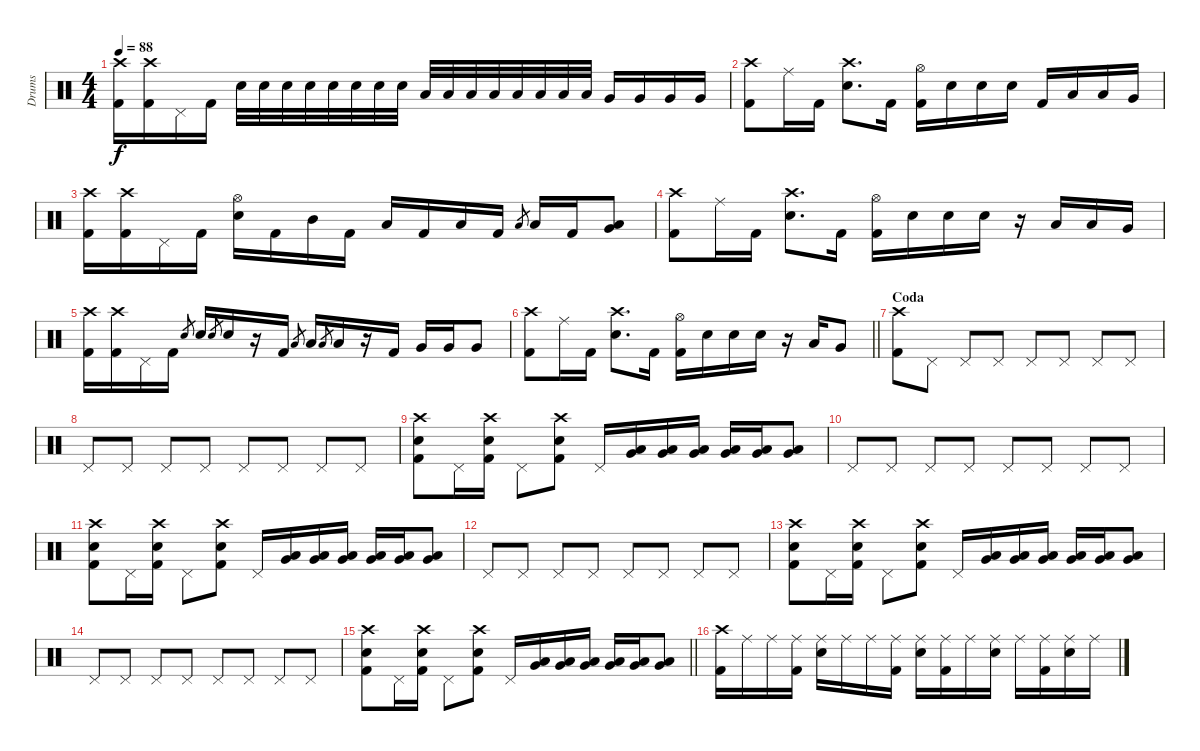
\track ("Drums" "Drums") {instrument percussion}
\staff {score}
\articulation defaults
\ts (4 4)
\tempo 88
\clef neutral
\ks c
("Crash high (hit)" "Kick (hit) 2").16{dy f} ("Crash high (hit)" "Kick (hit) 2").16 "Pedal Hi-Hat (hit)".16 "Kick (hit) 2".16 "Snare (hit) 2".32 "Snare (hit) 2".32 "Snare (hit) 2".32 "Snare (hit) 2".32 "Snare (hit) 2".32 "Snare (hit) 2".32 "Snare (hit) 2".32 "Snare (hit) 2".32 "Low Tom (hit)".32 "Low Tom (hit)".32 "Low Tom (hit)".32 "Low Tom (hit)".32 "Low Tom (hit)".32 "Low Tom (hit)".32 "Low Tom (hit)".32 "Low Tom (hit)".32 "Very Low Tom (hit)".16 "Very Low Tom (hit)".16 "Very Low Tom (hit)".16 "Very Low Tom (hit)".16 |
("Crash high (hit)" "Kick (hit) 2").8 "Ride (middle)".16 "Kick (hit) 2".16 ("Crash high (hit)" "Snare (hit) 2").8{d} "Kick (hit) 2".16 ("Hi-Hat (open)" "Kick (hit) 2").16 "Snare (hit) 2".16 "Snare (hit) 2".16 "Snare (hit) 2".16 "Kick (hit) 2".16 "Low Tom (hit)".16 "Low Tom (hit)".16 "Very Low Tom (hit)".16 |
("Crash high (hit)" "Kick (hit) 2").16 ("Crash high (hit)" "Kick (hit) 2").16 "Pedal Hi-Hat (hit)".16 "Kick (hit) 2".16 ("Hi-Hat (open)" "Snare (hit) 2").16 "Kick (hit) 2".16 "Mid Tom (hit)".16 "Kick (hit) 2".16 "Low Tom (hit)".16 "Kick (hit) 2".16 "Low Tom (hit)".16 "Kick (hit) 2".16 "Low Tom (hit)".8{gr} "Low Tom (hit)".16 "Kick (hit) 2".16 ("Low Tom (hit)" "Very Low Tom (hit)").8 |
("Crash high (hit)" "Kick (hit) 2").8 "Ride (middle)".16 "Kick (hit) 2".16 ("Crash high (hit)" "Snare (hit) 2").8{d} "Kick (hit) 2".16 ("Hi-Hat (open)" "Kick (hit) 2").16 "Snare (hit) 2".16 "Snare (hit) 2".16 "Snare (hit) 2".16 r.16 "Low Tom (hit)".16 "Low Tom (hit)".16 "Very Low Tom (hit)".16 |
("Crash high (hit)" "Kick (hit) 2").16 ("Crash high (hit)" "Kick (hit) 2").16 "Pedal Hi-Hat (hit)".16 "Kick (hit) 2".16 "Snare (hit) 2".8{gr} "Snare (hit) 2".16 "Snare (hit) 2".8{gr} "Snare (hit) 2".16 r.16 "Kick (hit) 2".16 "Low Tom (hit)".8{gr} "Low Tom (hit)".16 "Low Tom (hit)".8{gr} "Low Tom (hit)".16 r.16 "Kick (hit) 2".16 "Very Low Tom (hit)".16 "Very Low Tom (hit)".16 "Very Low Tom (hit)".8 |
\barLineRight lightlight
("Crash high (hit)" "Kick (hit) 2").8 "Ride (middle)".16 "Kick (hit) 2".16 ("Crash high (hit)" "Snare (hit) 2").8{d} "Kick (hit) 2".16 ("Hi-Hat (open)" "Kick (hit) 2").16 "Snare (hit) 2".16 "Snare (hit) 2".16 "Snare (hit) 2".16 r.16 "Low Tom (hit)".16 "Very Low Tom (hit)".8 |
\section ("" "Coda")
("Crash high (hit)" "Kick (hit) 2").8 "Pedal Hi-Hat (hit)".8 "Pedal Hi-Hat (hit)".8 "Pedal Hi-Hat (hit)".8 "Pedal Hi-Hat (hit)".8 "Pedal Hi-Hat (hit)".8 "Pedal Hi-Hat (hit)".8 "Pedal Hi-Hat (hit)".8 |
"Pedal Hi-Hat (hit)".8 "Pedal Hi-Hat (hit)".8 "Pedal Hi-Hat (hit)".8 "Pedal Hi-Hat (hit)".8 "Pedal Hi-Hat (hit)".8 "Pedal Hi-Hat (hit)".8 "Pedal Hi-Hat (hit)".8 "Pedal Hi-Hat (hit)".8 |
("Crash high (hit)" "Snare (hit) 2" "Kick (hit) 2").8 "Pedal Hi-Hat (hit)".16 ("Crash high (hit)" "Snare (hit) 2" "Kick (hit) 2").16 "Pedal Hi-Hat (hit)".8 ("Crash high (hit)" "Snare (hit) 2" "Kick (hit) 2").8 "Pedal Hi-Hat (hit)".16 ("Low Tom (hit)" "Very Low Tom (hit)").16 ("Low Tom (hit)" "Very Low Tom (hit)").16 ("Low Tom (hit)" "Very Low Tom (hit)").16 ("Low Tom (hit)" "Very Low Tom (hit)").16 ("Low Tom (hit)" "Very Low Tom (hit)").16 ("Low Tom (hit)" "Very Low Tom (hit)").8 |
"Pedal Hi-Hat (hit)".8 "Pedal Hi-Hat (hit)".8 "Pedal Hi-Hat (hit)".8 "Pedal Hi-Hat (hit)".8 "Pedal Hi-Hat (hit)".8 "Pedal Hi-Hat (hit)".8 "Pedal Hi-Hat (hit)".8 "Pedal Hi-Hat (hit)".8 |
("Crash high (hit)" "Snare (hit) 2" "Kick (hit) 2").8 "Pedal Hi-Hat (hit)".16 ("Crash high (hit)" "Snare (hit) 2" "Kick (hit) 2").16 "Pedal Hi-Hat (hit)".8 ("Crash high (hit)" "Snare (hit) 2" "Kick (hit) 2").8 "Pedal Hi-Hat (hit)".16 ("Low Tom (hit)" "Very Low Tom (hit)").16 ("Low Tom (hit)" "Very Low Tom (hit)").16 ("Low Tom (hit)" "Very Low Tom (hit)").16 ("Low Tom (hit)" "Very Low Tom (hit)").16 ("Low Tom (hit)" "Very Low Tom (hit)").16 ("Low Tom (hit)" "Very Low Tom (hit)").8 |
"Pedal Hi-Hat (hit)".8 "Pedal Hi-Hat (hit)".8 "Pedal Hi-Hat (hit)".8 "Pedal Hi-Hat (hit)".8 "Pedal Hi-Hat (hit)".8 "Pedal Hi-Hat (hit)".8 "Pedal Hi-Hat (hit)".8 "Pedal Hi-Hat (hit)".8 |
("Crash high (hit)" "Snare (hit) 2" "Kick (hit) 2").8 "Pedal Hi-Hat (hit)".16 ("Crash high (hit)" "Snare (hit) 2" "Kick (hit) 2").16 "Pedal Hi-Hat (hit)".8 ("Crash high (hit)" "Snare (hit) 2" "Kick (hit) 2").8 "Pedal Hi-Hat (hit)".16 ("Low Tom (hit)" "Very Low Tom (hit)").16 ("Low Tom (hit)" "Very Low Tom (hit)").16 ("Low Tom (hit)" "Very Low Tom (hit)").16 ("Low Tom (hit)" "Very Low Tom (hit)").16 ("Low Tom (hit)" "Very Low Tom (hit)").16 ("Low Tom (hit)" "Very Low Tom (hit)").8 |
"Pedal Hi-Hat (hit)".8 "Pedal Hi-Hat (hit)".8 "Pedal Hi-Hat (hit)".8 "Pedal Hi-Hat (hit)".8 "Pedal Hi-Hat (hit)".8 "Pedal Hi-Hat (hit)".8 "Pedal Hi-Hat (hit)".8 "Pedal Hi-Hat (hit)".8 |
\barLineRight lightlight
("Crash high (hit)" "Snare (hit) 2" "Kick (hit) 2").8 "Pedal Hi-Hat (hit)".16 ("Crash high (hit)" "Snare (hit) 2" "Kick (hit) 2").16 "Pedal Hi-Hat (hit)".8 ("Crash high (hit)" "Snare (hit) 2" "Kick (hit) 2").8 "Pedal Hi-Hat (hit)".16 ("Low Tom (hit)" "Very Low Tom (hit)").16 ("Low Tom (hit)" "Very Low Tom (hit)").16 ("Low Tom (hit)" "Very Low Tom (hit)").16 ("Low Tom (hit)" "Very Low Tom (hit)").16 ("Low Tom (hit)" "Very Low Tom (hit)").16 ("Low Tom (hit)" "Very Low Tom (hit)").8 |
("Crash high (hit)" "Kick (hit) 2").16 "Ride (middle)".16 "Ride (middle)".16 ("Ride (middle)" "Kick (hit) 2").16 ("Ride (middle)" "Snare (hit) 2").16 "Ride (middle)".16 "Ride (middle)".16 ("Ride (middle)" "Kick (hit) 2").16 ("Ride (middle)" "Snare (hit) 2").16 ("Ride (middle)" "Kick (hit) 2").16 "Ride (middle)".16 ("Ride (middle)" "Snare (hit) 2").16 "Ride (middle)".16 ("Ride (middle)" "Kick (hit) 2").16 ("Ride (middle)" "Snare (hit) 2").16 "Ride (middle)".16
